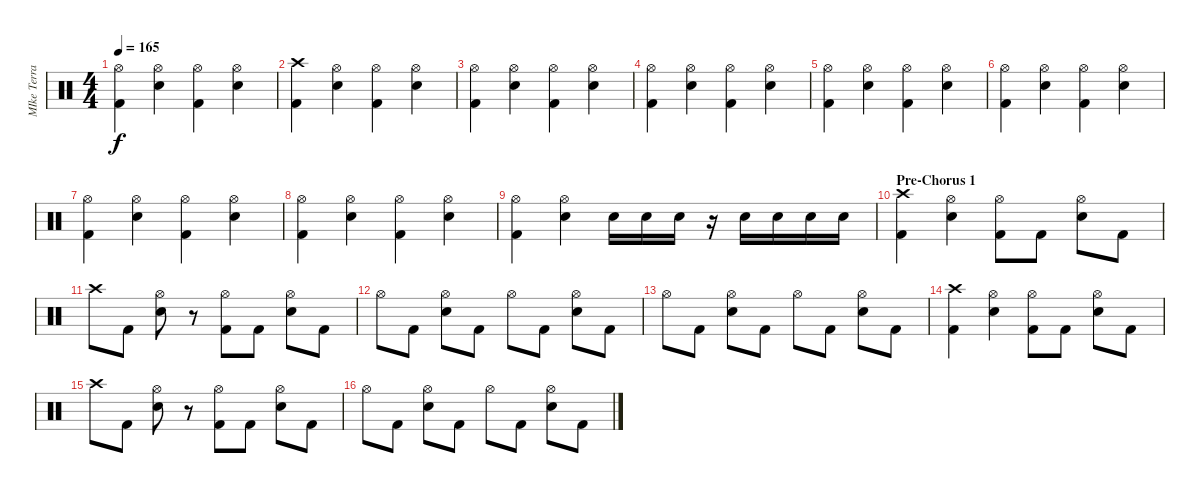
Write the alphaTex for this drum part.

\track ("MIke Terrana - Batteria" "MIke Terra") {instrument percussion}
\staff {score}
\articulation defaults
\ts (4 4)
\tempo 165
\clef neutral
\ks c
("Kick (hit) 2" "Hi-Hat (open)").4{dy f} ("Electric Snare (hit)" "Hi-Hat (open)").4 ("Kick (hit) 2" "Hi-Hat (open)").4 ("Electric Snare (hit)" "Hi-Hat (open)").4 |
("Kick (hit) 2" "Crash high (hit)").4 ("Electric Snare (hit)" "Hi-Hat (open)").4 ("Kick (hit) 2" "Hi-Hat (open)").4 ("Electric Snare (hit)" "Hi-Hat (open)").4 |
("Kick (hit) 2" "Hi-Hat (open)").4 ("Electric Snare (hit)" "Hi-Hat (open)").4 ("Kick (hit) 2" "Hi-Hat (open)").4 ("Electric Snare (hit)" "Hi-Hat (open)").4 |
("Kick (hit) 2" "Hi-Hat (open)").4 ("Electric Snare (hit)" "Hi-Hat (open)").4 ("Kick (hit) 2" "Hi-Hat (open)").4 ("Electric Snare (hit)" "Hi-Hat (open)").4 |
("Kick (hit) 2" "Hi-Hat (open)").4 ("Electric Snare (hit)" "Hi-Hat (open)").4 ("Kick (hit) 2" "Hi-Hat (open)").4 ("Electric Snare (hit)" "Hi-Hat (open)").4 |
("Kick (hit) 2" "Hi-Hat (open)").4 ("Electric Snare (hit)" "Hi-Hat (open)").4 ("Kick (hit) 2" "Hi-Hat (open)").4 ("Electric Snare (hit)" "Hi-Hat (open)").4 |
("Kick (hit) 2" "Hi-Hat (open)").4 ("Electric Snare (hit)" "Hi-Hat (open)").4 ("Kick (hit) 2" "Hi-Hat (open)").4 ("Electric Snare (hit)" "Hi-Hat (open)").4 |
("Kick (hit) 2" "Hi-Hat (open)").4 ("Electric Snare (hit)" "Hi-Hat (open)").4 ("Kick (hit) 2" "Hi-Hat (open)").4 ("Electric Snare (hit)" "Hi-Hat (open)").4 |
("Kick (hit) 2" "Hi-Hat (open)").4 ("Electric Snare (hit)" "Hi-Hat (open)").4 "Electric Snare (hit)".16 "Electric Snare (hit)".16 "Electric Snare (hit)".16 r.16 "Electric Snare (hit)".16 "Electric Snare (hit)".16 "Electric Snare (hit)".16 "Electric Snare (hit)".16 |
\section ("" "Pre-Chorus 1")
("Kick (hit) 2" "Crash high (hit)").4 ("Electric Snare (hit)" "Hi-Hat (open)").4 ("Kick (hit) 2" "Hi-Hat (open)").8 "Kick (hit) 2".8 ("Electric Snare (hit)" "Hi-Hat (open)").8 "Kick (hit) 2".8 |
"Crash high (hit)".8 "Kick (hit) 2".8 ("Electric Snare (hit)" "Hi-Hat (open)").8 r.8 ("Kick (hit) 2" "Hi-Hat (open)").8 "Kick (hit) 2".8 ("Electric Snare (hit)" "Hi-Hat (open)").8 "Kick (hit) 2".8 |
"Hi-Hat (open)".8 "Kick (hit) 2".8 ("Electric Snare (hit)" "Hi-Hat (open)").8 "Kick (hit) 2".8 "Hi-Hat (open)".8 "Kick (hit) 2".8 ("Electric Snare (hit)" "Hi-Hat (open)").8 "Kick (hit) 2".8 |
"Hi-Hat (open)".8 "Kick (hit) 2".8 ("Electric Snare (hit)" "Hi-Hat (open)").8 "Kick (hit) 2".8 "Hi-Hat (open)".8 "Kick (hit) 2".8 ("Electric Snare (hit)" "Hi-Hat (open)").8 "Kick (hit) 2".8 |
("Kick (hit) 2" "Crash high (hit)").4 ("Electric Snare (hit)" "Hi-Hat (open)").4 ("Kick (hit) 2" "Hi-Hat (open)").8 "Kick (hit) 2".8 ("Electric Snare (hit)" "Hi-Hat (open)").8 "Kick (hit) 2".8 |
"Crash high (hit)".8 "Kick (hit) 2".8 ("Electric Snare (hit)" "Hi-Hat (open)").8 r.8 ("Kick (hit) 2" "Hi-Hat (open)").8 "Kick (hit) 2".8 ("Electric Snare (hit)" "Hi-Hat (open)").8 "Kick (hit) 2".8 |
"Hi-Hat (open)".8 "Kick (hit) 2".8 ("Electric Snare (hit)" "Hi-Hat (open)").8 "Kick (hit) 2".8 "Hi-Hat (open)".8 "Kick (hit) 2".8 ("Electric Snare (hit)" "Hi-Hat (open)").8 "Kick (hit) 2".8
